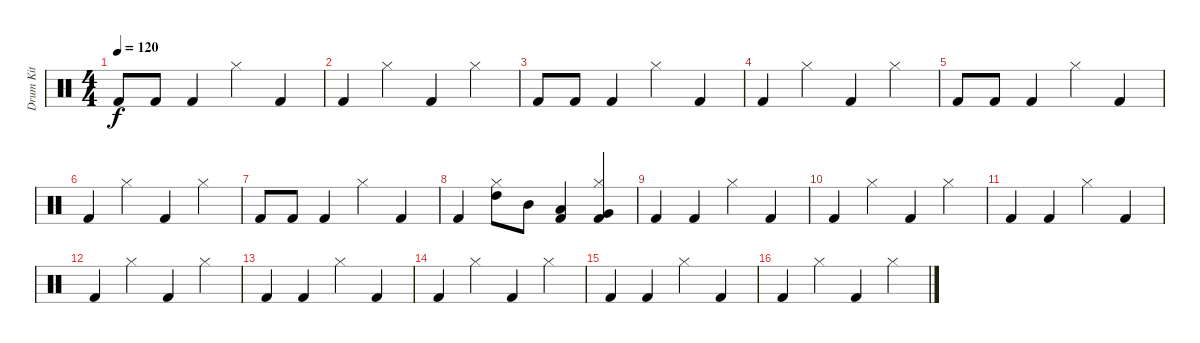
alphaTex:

\track ("Drum Kit" "Drum Kit") {instrument percussion}
\staff {score}
\articulation defaults
\ts (4 4)
\tempo 120
\clef neutral
\ks c "Kick (hit) 2".8{dy f} "Kick (hit) 2".8 "Kick (hit) 2".4 "Hi-Hat (closed)".4 "Kick (hit) 2".4
|
"Kick (hit) 2".4 "Hi-Hat (closed)".4 "Kick (hit) 2".4 "Hi-Hat (closed)".4 |
"Kick (hit) 2".8 "Kick (hit) 2".8 "Kick (hit) 2".4 "Hi-Hat (closed)".4 "Kick (hit) 2".4 |
"Kick (hit) 2".4 "Hi-Hat (closed)".4 "Kick (hit) 2".4 "Hi-Hat (closed)".4 |
"Kick (hit) 2".8 "Kick (hit) 2".8 "Kick (hit) 2".4 "Hi-Hat (closed)".4 "Kick (hit) 2".4 |
"Kick (hit) 2".4 "Hi-Hat (closed)".4 "Kick (hit) 2".4 "Hi-Hat (closed)".4 |
"Kick (hit) 2".8 "Kick (hit) 2".8 "Kick (hit) 2".4 "Hi-Hat (closed)".4 "Kick (hit) 2".4 |
"Kick (hit) 2".4 ("High Tom (hit)" "Hi-Hat (closed)").8 "Mid Tom (hit)".8 ("Low Tom (hit)" "Kick (hit) 2").4 ("Very Low Tom (hit)" "Hi-Hat (closed)" "Kick (hit) 2").4 |
"Kick (hit) 2".4 "Kick (hit) 2".4 "Hi-Hat (closed)".4 "Kick (hit) 2".4 |
"Kick (hit) 2".4 "Hi-Hat (closed)".4 "Kick (hit) 2".4 "Hi-Hat (closed)".4 |
"Kick (hit) 2".4 "Kick (hit) 2".4 "Hi-Hat (closed)".4 "Kick (hit) 2".4 |
"Kick (hit) 2".4 "Hi-Hat (closed)".4 "Kick (hit) 2".4 "Hi-Hat (closed)".4 |
"Kick (hit) 2".4 "Kick (hit) 2".4 "Hi-Hat (closed)".4 "Kick (hit) 2".4 |
"Kick (hit) 2".4 "Hi-Hat (closed)".4 "Kick (hit) 2".4 "Hi-Hat (closed)".4 |
"Kick (hit) 2".4 "Kick (hit) 2".4 "Hi-Hat (closed)".4 "Kick (hit) 2".4 |
"Kick (hit) 2".4 "Hi-Hat (closed)".4 "Kick (hit) 2".4 "Hi-Hat (closed)".4
